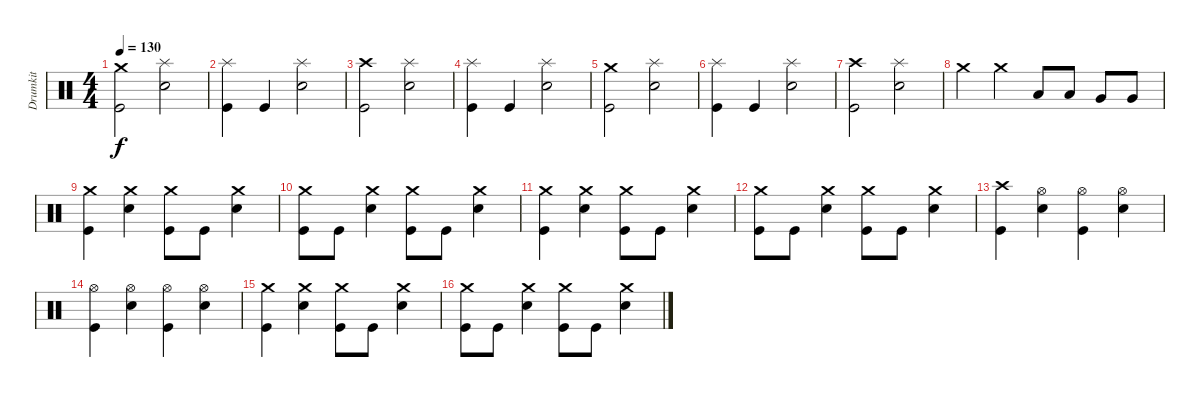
\track ("Drumkit" "Drumkit") {instrument percussion}
\staff {score}
\articulation defaults
\ts (4 4)
\tempo 130
\clef neutral
\ks c
("Crash medium (hit)" "Kick (hit)").2{dy f} ("Splash (hit)" "Snare (hit) 2").2 |
("Splash (hit)" "Kick (hit)").4 "Kick (hit)".4 ("Splash (hit)" "Snare (hit) 2").2 |
("Crash high (hit)" "Kick (hit)").2 ("Splash (hit)" "Snare (hit) 2").2 |
("Splash (hit)" "Kick (hit)").4 "Kick (hit)".4 ("Splash (hit)" "Snare (hit) 2").2 |
("Crash medium (hit)" "Kick (hit)").2 ("Splash (hit)" "Snare (hit) 2").2 |
("Splash (hit)" "Kick (hit)").4 "Kick (hit)".4 ("Splash (hit)" "Snare (hit) 2").2 |
("Crash high (hit)" "Kick (hit)").2 ("Splash (hit)" "Snare (hit) 2").2 |
"Crash medium (hit)".4 "Crash medium (hit)".4 "Low Tom (hit)".8 "Low Tom (hit)".8 "Very Low Tom (hit)".8 "Very Low Tom (hit)".8 |
("Crash medium (hit)" "Kick (hit)").4 ("Crash medium (hit)" "Snare (hit) 2").4 ("Crash medium (hit)" "Kick (hit)").8 "Kick (hit)".8 ("Crash medium (hit)" "Snare (hit) 2").4 |
("Crash medium (hit)" "Kick (hit)").8 "Kick (hit)".8 ("Crash medium (hit)" "Snare (hit) 2").4 ("Crash medium (hit)" "Kick (hit)").8 "Kick (hit)".8 ("Crash medium (hit)" "Snare (hit) 2").4 |
("Crash medium (hit)" "Kick (hit)").4 ("Crash medium (hit)" "Snare (hit) 2").4 ("Crash medium (hit)" "Kick (hit)").8 "Kick (hit)".8 ("Crash medium (hit)" "Snare (hit) 2").4 |
("Crash medium (hit)" "Kick (hit)").8 "Kick (hit)".8 ("Crash medium (hit)" "Snare (hit) 2").4 ("Crash medium (hit)" "Kick (hit)").8 "Kick (hit)".8 ("Crash medium (hit)" "Snare (hit) 2").4 |
("Crash high (hit)" "Kick (hit)").4 ("Hi-Hat (open)" "Snare (hit) 2").4 ("Hi-Hat (open)" "Kick (hit)").4 ("Hi-Hat (open)" "Snare (hit) 2").4 |
("Hi-Hat (open)" "Kick (hit)").4 ("Hi-Hat (open)" "Snare (hit) 2").4 ("Hi-Hat (open)" "Kick (hit)").4 ("Hi-Hat (open)" "Snare (hit) 2").4 |
("Crash medium (hit)" "Kick (hit)").4 ("Crash medium (hit)" "Snare (hit) 2").4 ("Crash medium (hit)" "Kick (hit)").8 "Kick (hit)".8 ("Crash medium (hit)" "Snare (hit) 2").4 |
("Crash medium (hit)" "Kick (hit)").8 "Kick (hit)".8 ("Crash medium (hit)" "Snare (hit) 2").4 ("Crash medium (hit)" "Kick (hit)").8 "Kick (hit)".8 ("Crash medium (hit)" "Snare (hit) 2").4
